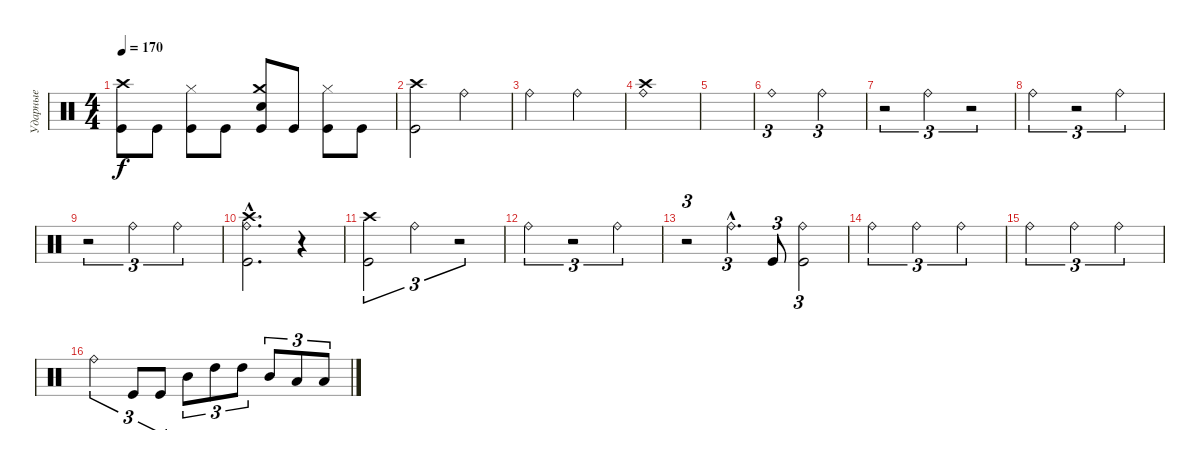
\track ("Ударные" "Ударные") {instrument percussion}
\staff {score}
\articulation defaults
\ts (4 4)
\tempo 170
\clef neutral
\ks c
("Crash high (hit)" "Kick (hit)").8{dy f} "Kick (hit)".8 ("Hi-Hat (closed)" "Kick (hit)").8 "Kick (hit)".8 ("Crash medium (hit)" "Electric Snare (hit)" "Kick (hit)").8 "Kick (hit)".8 ("Hi-Hat (closed)" "Kick (hit)").8 "Kick (hit)".8 |
("Crash high (hit)" "Kick (hit)").2 "Ride (bell)".2 |
"Ride (bell)".2 "Ride (bell)".2 |
("Ride (bell)" "Crash high (hit)").1 |
|
"Ride (bell)".1{tu (3 2)} "Ride (bell)".2{tu (3 2)} |
r.2{tu (3 2)} "Ride (bell)".2{tu (3 2)} r.2{tu (3 2)} |
"Ride (bell)".2{tu (3 2)} r.2{tu (3 2)} "Ride (bell)".2{tu (3 2)} |
r.2{tu (3 2)} "Ride (bell)".2{tu (3 2)} "Ride (bell)".2{tu (3 2)} |
("Ride (bell)"{hac} "Crash high (hit)"{hac} "Kick (hit)"{hac}).2{d} r.4 |
("Crash high (hit)" "Kick (hit)").2{tu (3 2)} "Ride (bell)".2{tu (3 2)} r.2{tu (3 2)} |
"Ride (bell)".2{tu (3 2)} r.2{tu (3 2)} "Ride (bell)".2{tu (3 2)} |
r.2{tu (3 2)} "Ride (bell)"{hac}.4{d tu (3 2)} "Kick (hit)".8{tu (3 2)} ("Ride (bell)" "Kick (hit)").2{tu (3 2)} |
"Ride (bell)".2{tu (3 2)} "Ride (bell)".2{tu (3 2)} "Ride (bell)".2{tu (3 2)} |
"Ride (bell)".2{tu (3 2)} "Ride (bell)".2{tu (3 2)} "Ride (bell)".2{tu (3 2)} |
"Ride (bell)".2{tu (3 2)} "Kick (hit)".8{tu (3 2)} "Kick (hit)".8{tu (3 2)} "Mid Tom (hit)".8{tu (3 2)} "High Tom (hit)".8{tu (3 2)} "High Tom (hit)".8{tu (3 2)} "Mid Tom (hit)".8{tu (3 2)} "Low Tom (hit)".8{tu (3 2)} "Low Tom (hit)".8{tu (3 2)}
